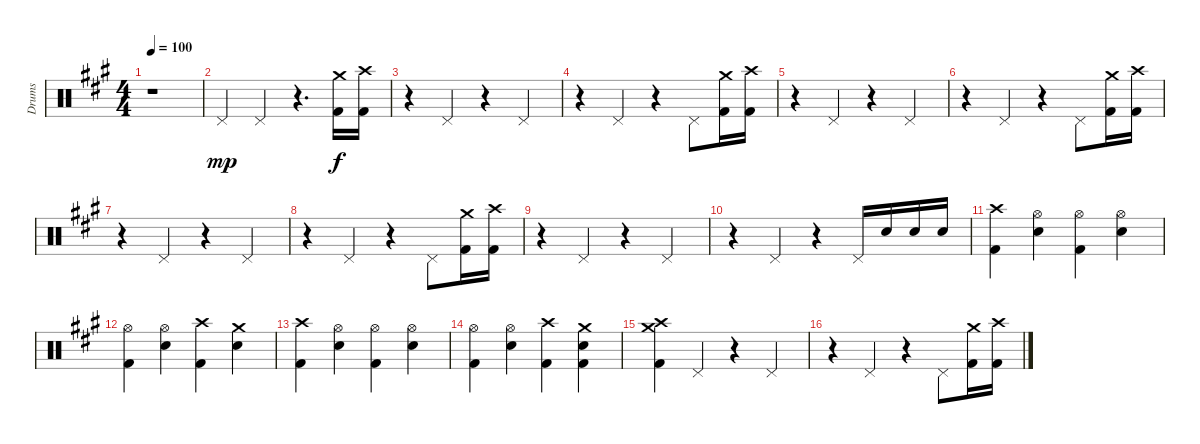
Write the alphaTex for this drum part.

\track ("Drums" "Drums") {instrument percussion}
\staff {score}
\articulation defaults
\ts (4 4)
\tempo 100
\clef neutral
\ks f#minor
r.1{dy mp} |
"Pedal Hi-Hat (hit)".4 "Pedal Hi-Hat (hit)".4 r.4{d} ("Crash medium (hit)" "Kick (hit) 2").16{dy f} ("Crash high (hit)" "Kick (hit) 2").16 |
r.4 "Pedal Hi-Hat (hit)".4 r.4 "Pedal Hi-Hat (hit)".4 |
r.4 "Pedal Hi-Hat (hit)".4 r.4 "Pedal Hi-Hat (hit)".8 ("Crash medium (hit)" "Kick (hit) 2").16 ("Crash high (hit)" "Kick (hit) 2").16 |
r.4 "Pedal Hi-Hat (hit)".4 r.4 "Pedal Hi-Hat (hit)".4 |
r.4 "Pedal Hi-Hat (hit)".4 r.4 "Pedal Hi-Hat (hit)".8 ("Crash medium (hit)" "Kick (hit) 2").16 ("Crash high (hit)" "Kick (hit) 2").16 |
r.4 "Pedal Hi-Hat (hit)".4 r.4 "Pedal Hi-Hat (hit)".4 |
r.4 "Pedal Hi-Hat (hit)".4 r.4 "Pedal Hi-Hat (hit)".8 ("Crash medium (hit)" "Kick (hit) 2").16 ("Crash high (hit)" "Kick (hit) 2").16 |
r.4 "Pedal Hi-Hat (hit)".4 r.4 "Pedal Hi-Hat (hit)".4 |
r.4 "Pedal Hi-Hat (hit)".4 r.4 "Pedal Hi-Hat (hit)".16 "Snare (hit) 2".16 "Snare (hit) 2".16 "Snare (hit) 2".16 |
("Crash high (hit)" "Kick (hit) 2").4 ("Hi-Hat (open)" "Snare (hit) 2").4 ("Hi-Hat (open)" "Kick (hit) 2").4 ("Hi-Hat (open)" "Snare (hit) 2").4 |
("Hi-Hat (open)" "Kick (hit) 2").4 ("Hi-Hat (open)" "Snare (hit) 2").4 ("Crash high (hit)" "Kick (hit) 2").4 ("Crash medium (hit)" "Snare (hit) 2").4 |
("Crash high (hit)" "Kick (hit) 2").4 ("Hi-Hat (open)" "Snare (hit) 2").4 ("Hi-Hat (open)" "Kick (hit) 2").4 ("Hi-Hat (open)" "Snare (hit) 2").4 |
("Hi-Hat (open)" "Kick (hit) 2").4 ("Hi-Hat (open)" "Snare (hit) 2").4 ("Crash high (hit)" "Kick (hit) 2").4 ("Crash medium (hit)" "Snare (hit) 2" "Kick (hit) 2").4 |
("Crash high (hit)" "Crash medium (hit)" "Kick (hit) 2").4 "Pedal Hi-Hat (hit)".4 r.4 "Pedal Hi-Hat (hit)".4 |
r.4 "Pedal Hi-Hat (hit)".4 r.4 "Pedal Hi-Hat (hit)".8 ("Crash medium (hit)" "Kick (hit) 2").16 ("Crash high (hit)" "Kick (hit) 2").16
